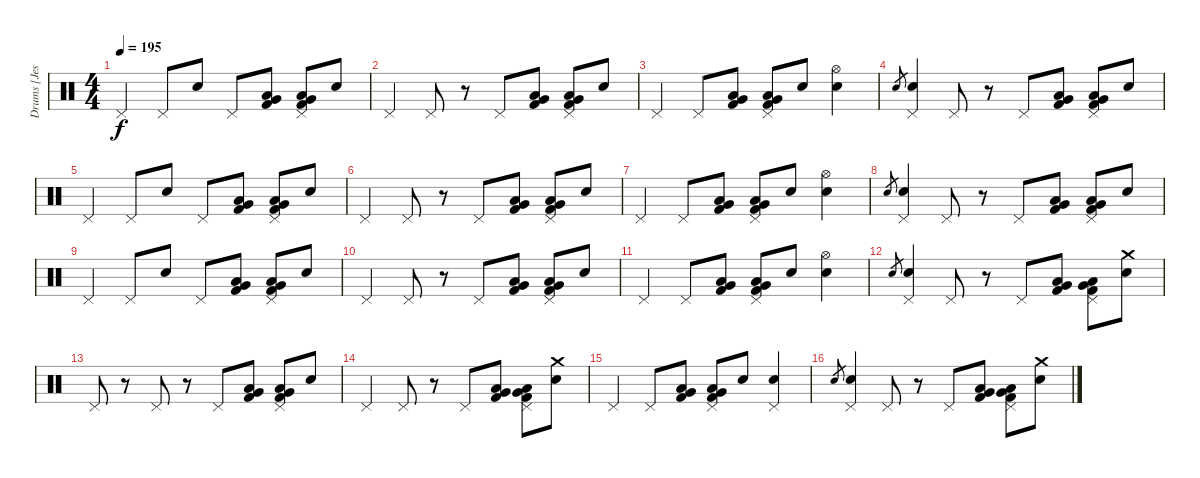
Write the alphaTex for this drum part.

\track ("Drums [Jesse Ingelevics]" "Drums [Jes") {instrument percussion}
\staff {score}
\articulation defaults
\ts (4 4)
\tempo 195
\clef neutral
\ks c "Pedal Hi-Hat (hit)".4{dy f} "Pedal Hi-Hat (hit)".8 "Electric Snare (hit)".8 "Pedal Hi-Hat (hit)".8
("Very Low Tom (hit)" "Low Floor Tom (hit)" "Kick (hit) 2").8 ("Pedal Hi-Hat (hit)" "Very Low Tom (hit)" "Low Floor Tom (hit)" "Kick (hit) 2").8 "Electric Snare (hit)".8 |
"Pedal Hi-Hat (hit)".4 "Pedal Hi-Hat (hit)".8 r.8 "Pedal Hi-Hat (hit)".8 ("Very Low Tom (hit)" "Low Floor Tom (hit)" "Kick (hit) 2").8 ("Pedal Hi-Hat (hit)" "Very Low Tom (hit)" "Low Floor Tom (hit)" "Kick (hit) 2").8 "Electric Snare (hit)".8 |
"Pedal Hi-Hat (hit)".4 "Pedal Hi-Hat (hit)".8 ("Very Low Tom (hit)" "Low Floor Tom (hit)" "Kick (hit) 2").8 ("Pedal Hi-Hat (hit)" "Very Low Tom (hit)" "Low Floor Tom (hit)" "Kick (hit) 2").8 "Electric Snare (hit)".8 ("Hi-Hat (open)" "Electric Snare (hit)").4 |
"Electric Snare (hit)".8{gr} ("Pedal Hi-Hat (hit)" "Electric Snare (hit)").4 "Pedal Hi-Hat (hit)".8 r.8 "Pedal Hi-Hat (hit)".8 ("Very Low Tom (hit)" "Low Floor Tom (hit)" "Kick (hit) 2").8 ("Pedal Hi-Hat (hit)" "Very Low Tom (hit)" "Low Floor Tom (hit)" "Kick (hit) 2").8 "Electric Snare (hit)".8 |
"Pedal Hi-Hat (hit)".4 "Pedal Hi-Hat (hit)".8 "Electric Snare (hit)".8 "Pedal Hi-Hat (hit)".8 ("Very Low Tom (hit)" "Low Floor Tom (hit)" "Kick (hit) 2").8 ("Pedal Hi-Hat (hit)" "Very Low Tom (hit)" "Low Floor Tom (hit)" "Kick (hit) 2").8 "Electric Snare (hit)".8 |
"Pedal Hi-Hat (hit)".4 "Pedal Hi-Hat (hit)".8 r.8 "Pedal Hi-Hat (hit)".8 ("Very Low Tom (hit)" "Low Floor Tom (hit)" "Kick (hit) 2").8 ("Pedal Hi-Hat (hit)" "Very Low Tom (hit)" "Low Floor Tom (hit)" "Kick (hit) 2").8 "Electric Snare (hit)".8 |
"Pedal Hi-Hat (hit)".4 "Pedal Hi-Hat (hit)".8 ("Very Low Tom (hit)" "Low Floor Tom (hit)" "Kick (hit) 2").8 ("Pedal Hi-Hat (hit)" "Very Low Tom (hit)" "Low Floor Tom (hit)" "Kick (hit) 2").8 "Electric Snare (hit)".8 ("Hi-Hat (open)" "Electric Snare (hit)").4 |
"Electric Snare (hit)".8{gr} ("Pedal Hi-Hat (hit)" "Electric Snare (hit)").4 "Pedal Hi-Hat (hit)".8 r.8 "Pedal Hi-Hat (hit)".8 ("Very Low Tom (hit)" "Low Floor Tom (hit)" "Kick (hit) 2").8 ("Pedal Hi-Hat (hit)" "Very Low Tom (hit)" "Low Floor Tom (hit)" "Kick (hit) 2").8 "Electric Snare (hit)".8 |
"Pedal Hi-Hat (hit)".4 "Pedal Hi-Hat (hit)".8 "Electric Snare (hit)".8 "Pedal Hi-Hat (hit)".8 ("Very Low Tom (hit)" "Low Floor Tom (hit)" "Kick (hit) 2").8 ("Pedal Hi-Hat (hit)" "Very Low Tom (hit)" "Low Floor Tom (hit)" "Kick (hit) 2").8 "Electric Snare (hit)".8 |
"Pedal Hi-Hat (hit)".4 "Pedal Hi-Hat (hit)".8 r.8 "Pedal Hi-Hat (hit)".8 ("Very Low Tom (hit)" "Low Floor Tom (hit)" "Kick (hit) 2").8 ("Pedal Hi-Hat (hit)" "Very Low Tom (hit)" "Low Floor Tom (hit)" "Kick (hit) 2").8 "Electric Snare (hit)".8 |
"Pedal Hi-Hat (hit)".4 "Pedal Hi-Hat (hit)".8 ("Very Low Tom (hit)" "Low Floor Tom (hit)" "Kick (hit) 2").8 ("Pedal Hi-Hat (hit)" "Very Low Tom (hit)" "Low Floor Tom (hit)" "Kick (hit) 2").8 "Electric Snare (hit)".8 ("Hi-Hat (open)" "Electric Snare (hit)").4 |
"Electric Snare (hit)".8{gr} ("Pedal Hi-Hat (hit)" "Electric Snare (hit)").4 "Pedal Hi-Hat (hit)".8 r.8 "Pedal Hi-Hat (hit)".8 ("Very Low Tom (hit)" "Low Floor Tom (hit)" "Kick (hit) 2").8 ("Pedal Hi-Hat (hit)" "Very Low Tom (hit)" "Low Floor Tom (hit)" "Kick (hit) 2").8 ("Crash medium (hit)" "Electric Snare (hit)").8 |
"Pedal Hi-Hat (hit)".8 r.8 "Pedal Hi-Hat (hit)".8 r.8 "Pedal Hi-Hat (hit)".8 ("Very Low Tom (hit)" "Low Floor Tom (hit)" "Kick (hit) 2").8 ("Pedal Hi-Hat (hit)" "Very Low Tom (hit)" "Low Floor Tom (hit)" "Kick (hit) 2").8 "Electric Snare (hit)".8 |
"Pedal Hi-Hat (hit)".4 "Pedal Hi-Hat (hit)".8 r.8 "Pedal Hi-Hat (hit)".8 ("Very Low Tom (hit)" "Low Floor Tom (hit)" "Kick (hit) 2").8 ("Pedal Hi-Hat (hit)" "Very Low Tom (hit)" "Low Floor Tom (hit)" "Kick (hit) 2").8 ("Crash medium (hit)" "Electric Snare (hit)").8 |
"Pedal Hi-Hat (hit)".4 "Pedal Hi-Hat (hit)".8 ("Very Low Tom (hit)" "Low Floor Tom (hit)" "Kick (hit) 2").8 ("Pedal Hi-Hat (hit)" "Very Low Tom (hit)" "Low Floor Tom (hit)" "Kick (hit) 2").8 "Electric Snare (hit)".8 ("Pedal Hi-Hat (hit)" "Electric Snare (hit)").4 |
"Electric Snare (hit)".8{gr} ("Pedal Hi-Hat (hit)" "Electric Snare (hit)").4 "Pedal Hi-Hat (hit)".8 r.8 "Pedal Hi-Hat (hit)".8 ("Very Low Tom (hit)" "Low Floor Tom (hit)" "Kick (hit) 2").8 ("Pedal Hi-Hat (hit)" "Very Low Tom (hit)" "Low Floor Tom (hit)" "Kick (hit) 2").8 ("Crash medium (hit)" "Electric Snare (hit)").8
